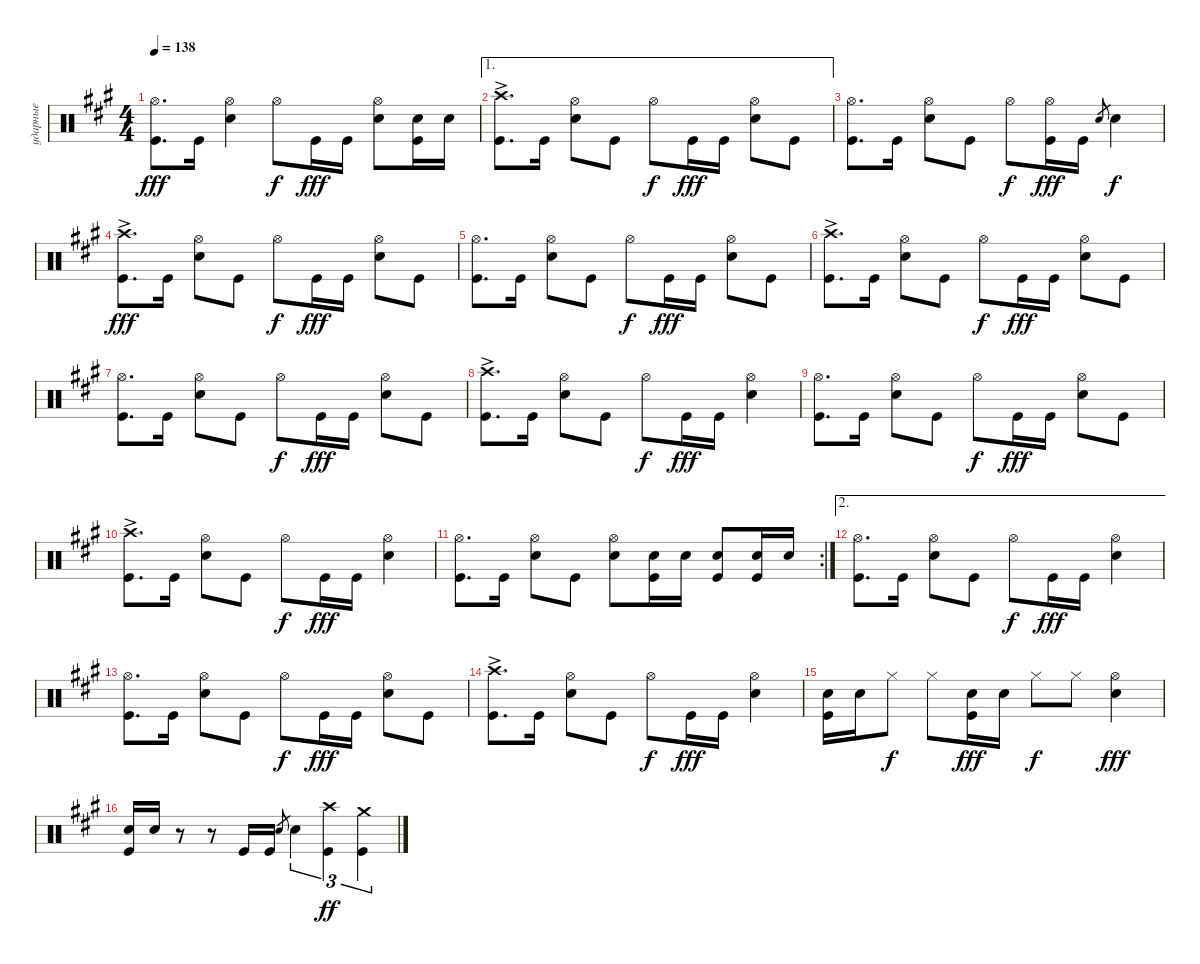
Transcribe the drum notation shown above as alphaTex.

\track ("ударные" "ударные") {instrument percussion}
\staff {score}
\articulation defaults
\ts (4 4)
\tempo 138
\clef neutral
\ks f#minor
("Kick (hit)" "Hi-Hat (open)").8{d dy fff} "Kick (hit)".16 ("Snare (hit) 2" "Hi-Hat (open)").4 "Hi-Hat (open)".8{dy f} "Kick (hit)".16{dy fff} "Kick (hit)".16 ("Snare (hit) 2" "Hi-Hat (open)").8 ("Snare (hit) 2" "Kick (hit)").16 "Snare (hit) 2".16 |
\ae 1
("Kick (hit)" "Crash high (hit)"{ac}).8{d} "Kick (hit)".16 ("Snare (hit) 2" "Hi-Hat (open)").8 "Kick (hit)".8 "Hi-Hat (open)".8{dy f} "Kick (hit)".16{dy fff} "Kick (hit)".16 ("Snare (hit) 2" "Hi-Hat (open)").8 "Kick (hit)".8 |
("Kick (hit)" "Hi-Hat (open)").8{d} "Kick (hit)".16 ("Snare (hit) 2" "Hi-Hat (open)").8 "Kick (hit)".8 "Hi-Hat (open)".8{dy f} ("Kick (hit)" "Hi-Hat (open)").16{dy fff} "Kick (hit)".16 "Snare (hit) 2".8{gr} "Snare (hit) 2".4{dy f} |
("Kick (hit)" "Crash high (hit)"{ac}).8{d dy fff} "Kick (hit)".16 ("Snare (hit) 2" "Hi-Hat (open)").8 "Kick (hit)".8 "Hi-Hat (open)".8{dy f} "Kick (hit)".16{dy fff} "Kick (hit)".16 ("Snare (hit) 2" "Hi-Hat (open)").8 "Kick (hit)".8 |
("Kick (hit)" "Hi-Hat (open)").8{d} "Kick (hit)".16 ("Snare (hit) 2" "Hi-Hat (open)").8 "Kick (hit)".8 "Hi-Hat (open)".8{dy f} "Kick (hit)".16{dy fff} "Kick (hit)".16 ("Snare (hit) 2" "Hi-Hat (open)").8 "Kick (hit)".8 |
("Kick (hit)" "Crash high (hit)"{ac}).8{d} "Kick (hit)".16 ("Snare (hit) 2" "Hi-Hat (open)").8 "Kick (hit)".8 "Hi-Hat (open)".8{dy f} "Kick (hit)".16{dy fff} "Kick (hit)".16 ("Snare (hit) 2" "Hi-Hat (open)").8 "Kick (hit)".8 |
("Kick (hit)" "Hi-Hat (open)").8{d} "Kick (hit)".16 ("Snare (hit) 2" "Hi-Hat (open)").8 "Kick (hit)".8 "Hi-Hat (open)".8{dy f} "Kick (hit)".16{dy fff} "Kick (hit)".16 ("Snare (hit) 2" "Hi-Hat (open)").8 "Kick (hit)".8 |
("Kick (hit)" "Crash high (hit)"{ac}).8{d} "Kick (hit)".16 ("Snare (hit) 2" "Hi-Hat (open)").8 "Kick (hit)".8 "Hi-Hat (open)".8{dy f} "Kick (hit)".16{dy fff} "Kick (hit)".16 ("Snare (hit) 2" "Hi-Hat (open)").4 |
("Kick (hit)" "Hi-Hat (open)").8{d} "Kick (hit)".16 ("Snare (hit) 2" "Hi-Hat (open)").8 "Kick (hit)".8 "Hi-Hat (open)".8{dy f} "Kick (hit)".16{dy fff} "Kick (hit)".16 ("Snare (hit) 2" "Hi-Hat (open)").8 "Kick (hit)".8 |
("Kick (hit)" "Crash high (hit)"{ac}).8{d} "Kick (hit)".16 ("Snare (hit) 2" "Hi-Hat (open)").8 "Kick (hit)".8 "Hi-Hat (open)".8{dy f} "Kick (hit)".16{dy fff} "Kick (hit)".16 ("Snare (hit) 2" "Hi-Hat (open)").4 |
\rc 2
("Kick (hit)" "Hi-Hat (open)").8{d} "Kick (hit)".16 ("Snare (hit) 2" "Hi-Hat (open)").8 "Kick (hit)".8 ("Snare (hit) 2" "Hi-Hat (open)").8 ("Snare (hit) 2" "Kick (hit)").16 "Snare (hit) 2".16 ("Snare (hit) 2" "Kick (hit)").8 ("Snare (hit) 2" "Kick (hit)").16 "Snare (hit) 2".16 |
\ae 2
("Kick (hit)" "Hi-Hat (open)").8{d} "Kick (hit)".16 ("Snare (hit) 2" "Hi-Hat (open)").8 "Kick (hit)".8 "Hi-Hat (open)".8{dy f} "Kick (hit)".16{dy fff} "Kick (hit)".16 ("Snare (hit) 2" "Hi-Hat (open)").4 |
("Kick (hit)" "Hi-Hat (open)").8{d} "Kick (hit)".16 ("Snare (hit) 2" "Hi-Hat (open)").8 "Kick (hit)".8 "Hi-Hat (open)".8{dy f} "Kick (hit)".16{dy fff} "Kick (hit)".16 ("Snare (hit) 2" "Hi-Hat (open)").8 "Kick (hit)".8 |
("Kick (hit)" "Crash high (hit)"{ac}).8{d} "Kick (hit)".16 ("Snare (hit) 2" "Hi-Hat (open)").8 "Kick (hit)".8 "Hi-Hat (open)".8{dy f} "Kick (hit)".16{dy fff} "Kick (hit)".16 ("Snare (hit) 2" "Hi-Hat (open)").4 |
("Snare (hit) 2" "Kick (hit)").16 "Snare (hit) 2".16 "Hi-Hat (closed)".8{dy f} "Hi-Hat (closed)".8 ("Snare (hit) 2" "Kick (hit)").16{dy fff} "Snare (hit) 2".16 "Hi-Hat (closed)".8{dy f} "Hi-Hat (closed)".8 ("Snare (hit) 2" "Hi-Hat (open)").4{dy fff} |
("Snare (hit) 2" "Kick (hit)").16 "Snare (hit) 2".16 r.8 r.8 "Kick (hit)".16 "Kick (hit)".16 "Snare (hit) 2".8{gr} "Snare (hit) 2".4{tu (3 2)} ("Kick (hit)" "Crash high (hit)").4{tu (3 2) dy ff} ("Kick (hit)" "Crash medium (hit)").4{tu (3 2)}
